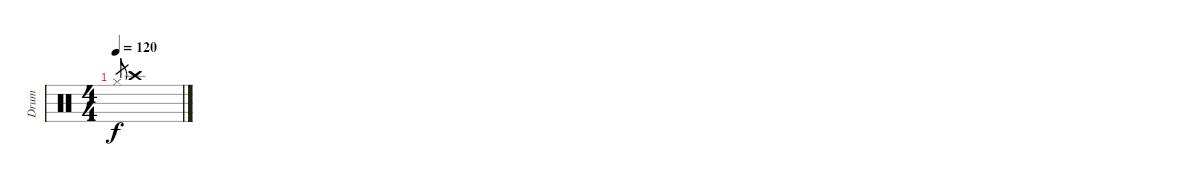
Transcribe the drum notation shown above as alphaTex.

\track ("Drum" "Drum") {instrument percussion}
\staff {score}
\articulation defaults
\ts (4 4)
\tempo 120
\clef neutral
\ks c "Hi-Hat (closed)".8{gr dy f} "Crash high (hit)".1
